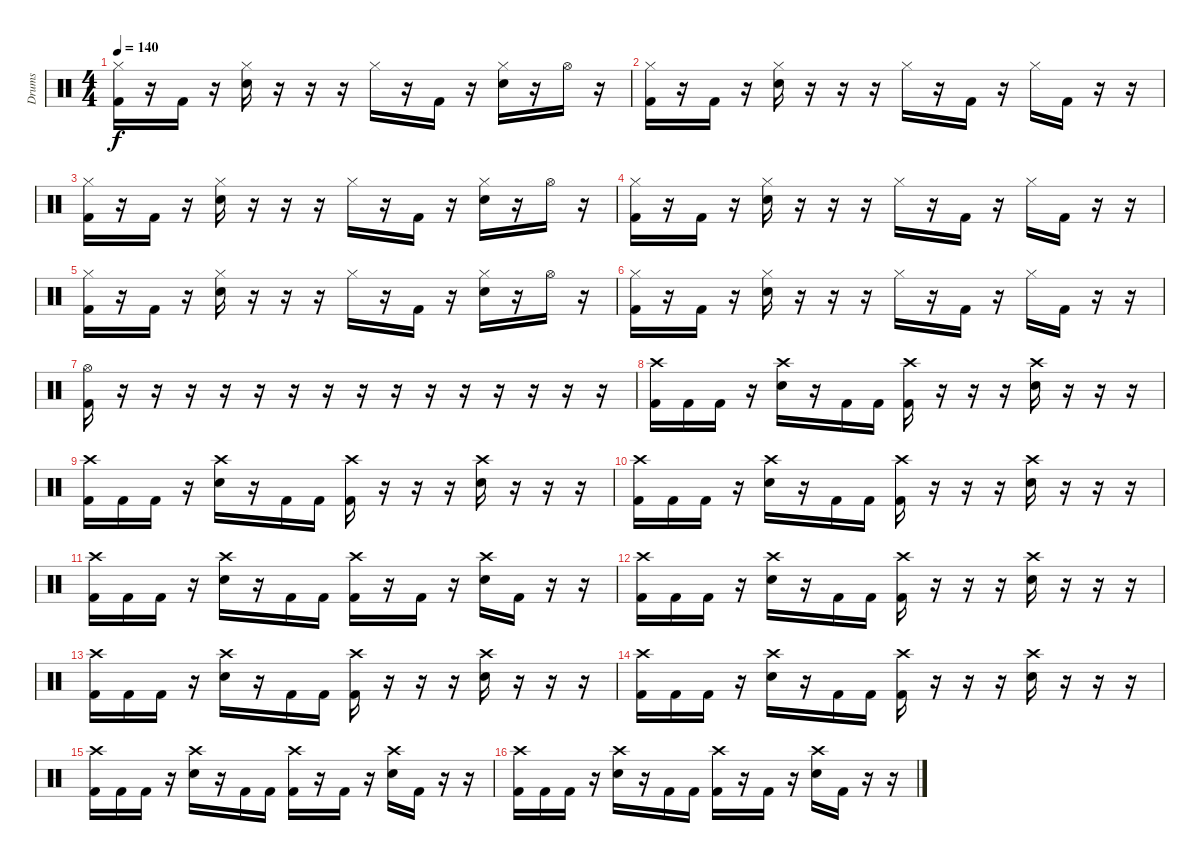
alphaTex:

\track ("Drums" "Drums") {instrument percussion}
\staff {score}
\articulation defaults
\ts (4 4)
\tempo 140
\clef neutral
\ks c
("Hi-Hat (closed)" "Kick (hit) 2").16{dy f} r.16 "Kick (hit) 2".16 r.16 ("Hi-Hat (closed)" "Electric Snare (hit)").16 r.16 r.16 r.16 "Hi-Hat (closed)".16 r.16 "Kick (hit) 2".16 r.16 ("Hi-Hat (closed)" "Electric Snare (hit)").16 r.16 "Hi-Hat (open)".16 r.16 |
("Hi-Hat (closed)" "Kick (hit) 2").16 r.16 "Kick (hit) 2".16 r.16 ("Hi-Hat (closed)" "Electric Snare (hit)").16 r.16 r.16 r.16 "Hi-Hat (closed)".16 r.16 "Kick (hit) 2".16 r.16 "Hi-Hat (closed)".16 "Kick (hit) 2".16 r.16 r.16 |
("Hi-Hat (closed)" "Kick (hit) 2").16 r.16 "Kick (hit) 2".16 r.16 ("Hi-Hat (closed)" "Electric Snare (hit)").16 r.16 r.16 r.16 "Hi-Hat (closed)".16 r.16 "Kick (hit) 2".16 r.16 ("Hi-Hat (closed)" "Electric Snare (hit)").16 r.16 "Hi-Hat (open)".16 r.16 |
("Hi-Hat (closed)" "Kick (hit) 2").16 r.16 "Kick (hit) 2".16 r.16 ("Hi-Hat (closed)" "Electric Snare (hit)").16 r.16 r.16 r.16 "Hi-Hat (closed)".16 r.16 "Kick (hit) 2".16 r.16 "Hi-Hat (closed)".16 "Kick (hit) 2".16 r.16 r.16 |
("Hi-Hat (closed)" "Kick (hit) 2").16 r.16 "Kick (hit) 2".16 r.16 ("Hi-Hat (closed)" "Electric Snare (hit)").16 r.16 r.16 r.16 "Hi-Hat (closed)".16 r.16 "Kick (hit) 2".16 r.16 ("Hi-Hat (closed)" "Electric Snare (hit)").16 r.16 "Hi-Hat (open)".16 r.16 |
("Hi-Hat (closed)" "Kick (hit) 2").16 r.16 "Kick (hit) 2".16 r.16 ("Hi-Hat (closed)" "Electric Snare (hit)").16 r.16 r.16 r.16 "Hi-Hat (closed)".16 r.16 "Kick (hit) 2".16 r.16 "Hi-Hat (closed)".16 "Kick (hit) 2".16 r.16 r.16 |
("Hi-Hat (open)" "Kick (hit) 2").16 r.16 r.16 r.16 r.16 r.16 r.16 r.16 r.16 r.16 r.16 r.16 r.16 r.16 r.16 r.16 |
("Crash high (hit)" "Kick (hit) 2").16 "Kick (hit) 2".16 "Kick (hit) 2".16 r.16 ("Crash high (hit)" "Electric Snare (hit)").16 r.16 "Kick (hit) 2".16 "Kick (hit) 2".16 ("Crash high (hit)" "Kick (hit) 2").16 r.16 r.16 r.16 ("Crash high (hit)" "Electric Snare (hit)").16 r.16 r.16 r.16 |
("Crash high (hit)" "Kick (hit) 2").16 "Kick (hit) 2".16 "Kick (hit) 2".16 r.16 ("Crash high (hit)" "Electric Snare (hit)").16 r.16 "Kick (hit) 2".16 "Kick (hit) 2".16 ("Crash high (hit)" "Kick (hit) 2").16 r.16 r.16 r.16 ("Crash high (hit)" "Electric Snare (hit)").16 r.16 r.16 r.16 |
("Crash high (hit)" "Kick (hit) 2").16 "Kick (hit) 2".16 "Kick (hit) 2".16 r.16 ("Crash high (hit)" "Electric Snare (hit)").16 r.16 "Kick (hit) 2".16 "Kick (hit) 2".16 ("Crash high (hit)" "Kick (hit) 2").16 r.16 r.16 r.16 ("Crash high (hit)" "Electric Snare (hit)").16 r.16 r.16 r.16 |
("Crash high (hit)" "Kick (hit) 2").16 "Kick (hit) 2".16 "Kick (hit) 2".16 r.16 ("Crash high (hit)" "Electric Snare (hit)").16 r.16 "Kick (hit) 2".16 "Kick (hit) 2".16 ("Crash high (hit)" "Kick (hit) 2").16 r.16 "Kick (hit) 2".16 r.16 ("Crash high (hit)" "Electric Snare (hit)").16 "Kick (hit) 2".16 r.16 r.16 |
("Crash high (hit)" "Kick (hit) 2").16 "Kick (hit) 2".16 "Kick (hit) 2".16 r.16 ("Crash high (hit)" "Electric Snare (hit)").16 r.16 "Kick (hit) 2".16 "Kick (hit) 2".16 ("Crash high (hit)" "Kick (hit) 2").16 r.16 r.16 r.16 ("Crash high (hit)" "Electric Snare (hit)").16 r.16 r.16 r.16 |
("Crash high (hit)" "Kick (hit) 2").16 "Kick (hit) 2".16 "Kick (hit) 2".16 r.16 ("Crash high (hit)" "Electric Snare (hit)").16 r.16 "Kick (hit) 2".16 "Kick (hit) 2".16 ("Crash high (hit)" "Kick (hit) 2").16 r.16 r.16 r.16 ("Crash high (hit)" "Electric Snare (hit)").16 r.16 r.16 r.16 |
("Crash high (hit)" "Kick (hit) 2").16 "Kick (hit) 2".16 "Kick (hit) 2".16 r.16 ("Crash high (hit)" "Electric Snare (hit)").16 r.16 "Kick (hit) 2".16 "Kick (hit) 2".16 ("Crash high (hit)" "Kick (hit) 2").16 r.16 r.16 r.16 ("Crash high (hit)" "Electric Snare (hit)").16 r.16 r.16 r.16 |
("Crash high (hit)" "Kick (hit) 2").16 "Kick (hit) 2".16 "Kick (hit) 2".16 r.16 ("Crash high (hit)" "Electric Snare (hit)").16 r.16 "Kick (hit) 2".16 "Kick (hit) 2".16 ("Crash high (hit)" "Kick (hit) 2").16 r.16 "Kick (hit) 2".16 r.16 ("Crash high (hit)" "Electric Snare (hit)").16 "Kick (hit) 2".16 r.16 r.16 |
("Crash high (hit)" "Kick (hit) 2").16 "Kick (hit) 2".16 "Kick (hit) 2".16 r.16 ("Crash high (hit)" "Electric Snare (hit)").16 r.16 "Kick (hit) 2".16 "Kick (hit) 2".16 ("Crash high (hit)" "Kick (hit) 2").16 r.16 "Kick (hit) 2".16 r.16 ("Crash high (hit)" "Electric Snare (hit)").16 "Kick (hit) 2".16 r.16 r.16
